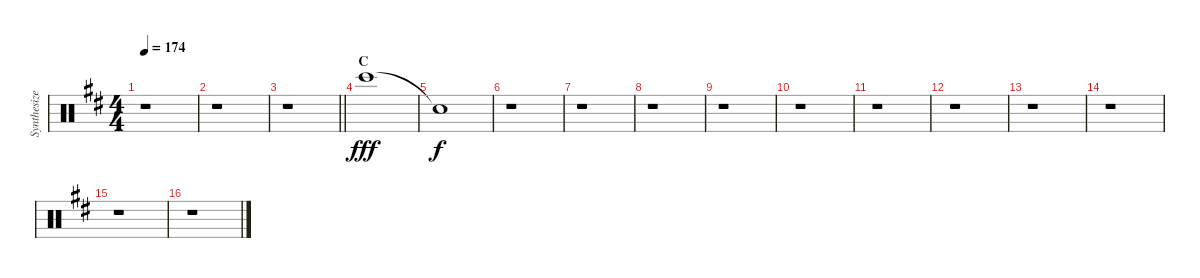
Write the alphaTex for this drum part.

\track ("Synthesized Slap" "Synthesize") {instrument percussion}
\staff {score}
\articulation defaults
\ts (4 4)
\tempo 174
\clef neutral
\ks bminor
r.1{dy f} |
r.1 |
\barLineRight lightlight
r.1 |
\section ("" "C")
"Bongo High (hit)".1{dy fff} |
"Snare (hit)"{t}.1{dy f} |
r.1 |
r.1 |
r.1 |
r.1 |
r.1 |
r.1 |
r.1 |
r.1 |
r.1 |
r.1 |
r.1
